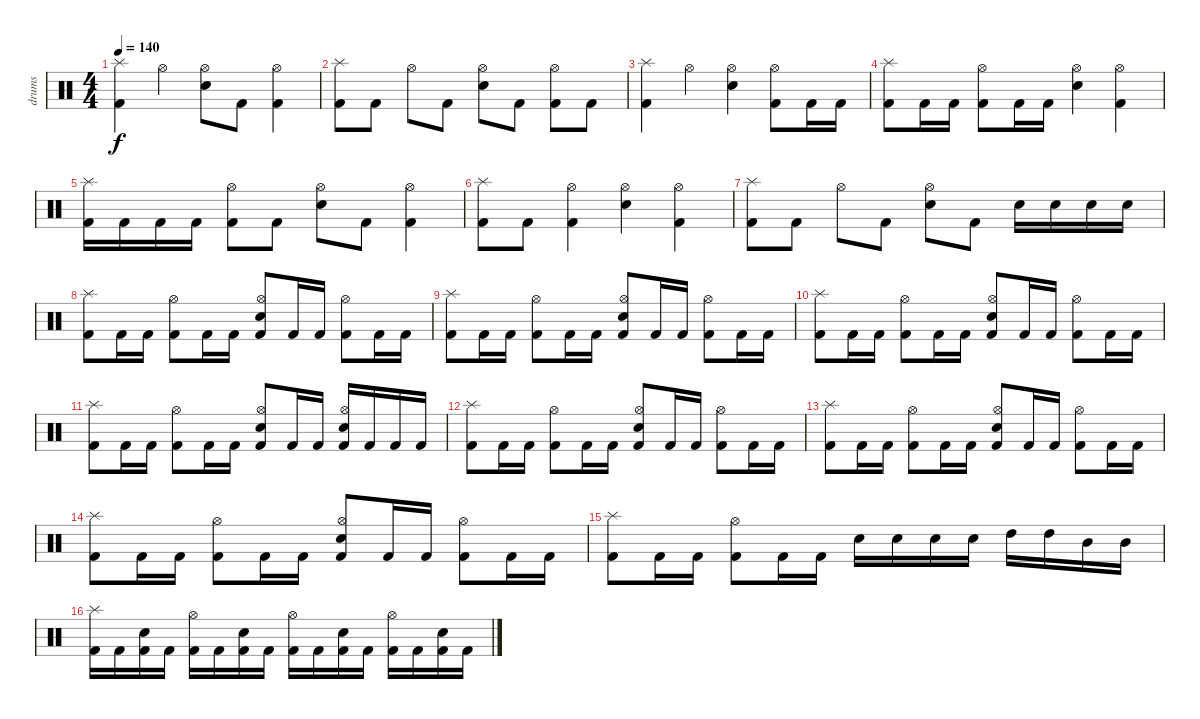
\track ("drums" "drums") {instrument percussion}
\staff {score}
\articulation defaults
\ts (4 4)
\tempo 140
\clef neutral
\ks c
("Splash (hit)" "Kick (hit) 2").4{dy f} "Hi-Hat (open)".4 ("Hi-Hat (open)" "Electric Snare (hit)").8 "Kick (hit) 2".8 ("Hi-Hat (open)" "Kick (hit) 2").4 |
("Splash (hit)" "Kick (hit) 2").8 "Kick (hit) 2".8 "Hi-Hat (open)".8 "Kick (hit) 2".8 ("Hi-Hat (open)" "Electric Snare (hit)").8 "Kick (hit) 2".8 ("Hi-Hat (open)" "Kick (hit) 2").8 "Kick (hit) 2".8 |
("Splash (hit)" "Kick (hit) 2").4 "Hi-Hat (open)".4 ("Hi-Hat (open)" "Electric Snare (hit)").4 ("Hi-Hat (open)" "Kick (hit) 2").8 "Kick (hit) 2".16 "Kick (hit) 2".16 |
("Splash (hit)" "Kick (hit) 2").8 "Kick (hit) 2".16 "Kick (hit) 2".16 ("Hi-Hat (open)" "Kick (hit) 2").8 "Kick (hit) 2".16 "Kick (hit) 2".16 ("Hi-Hat (open)" "Electric Snare (hit)").4 ("Hi-Hat (open)" "Kick (hit) 2").4 |
("Splash (hit)" "Kick (hit) 2").16 "Kick (hit) 2".16 "Kick (hit) 2".16 "Kick (hit) 2".16 ("Hi-Hat (open)" "Kick (hit) 2").8 "Kick (hit) 2".8 ("Hi-Hat (open)" "Electric Snare (hit)").8 "Kick (hit) 2".8 ("Hi-Hat (open)" "Kick (hit) 2").4 |
("Splash (hit)" "Kick (hit) 2").8 "Kick (hit) 2".8 ("Hi-Hat (open)" "Kick (hit) 2").4 ("Hi-Hat (open)" "Electric Snare (hit)").4 ("Hi-Hat (open)" "Kick (hit) 2").4 |
("Splash (hit)" "Kick (hit) 2").8 "Kick (hit) 2".8 "Hi-Hat (open)".8 "Kick (hit) 2".8 ("Hi-Hat (open)" "Electric Snare (hit)").8 "Kick (hit) 2".8 "Electric Snare (hit)".16 "Electric Snare (hit)".16 "Electric Snare (hit)".16 "Electric Snare (hit)".16 |
("Splash (hit)" "Kick (hit) 2").8 "Kick (hit) 2".16 "Kick (hit) 2".16 ("Hi-Hat (open)" "Kick (hit) 2").8 "Kick (hit) 2".16 "Kick (hit) 2".16 ("Hi-Hat (open)" "Electric Snare (hit)" "Kick (hit) 2").8 "Kick (hit) 2".16 "Kick (hit) 2".16 ("Hi-Hat (open)" "Kick (hit) 2").8 "Kick (hit) 2".16 "Kick (hit) 2".16 |
("Splash (hit)" "Kick (hit) 2").8 "Kick (hit) 2".16 "Kick (hit) 2".16 ("Hi-Hat (open)" "Kick (hit) 2").8 "Kick (hit) 2".16 "Kick (hit) 2".16 ("Hi-Hat (open)" "Electric Snare (hit)" "Kick (hit) 2").8 "Kick (hit) 2".16 "Kick (hit) 2".16 ("Hi-Hat (open)" "Kick (hit) 2").8 "Kick (hit) 2".16 "Kick (hit) 2".16 |
("Splash (hit)" "Kick (hit) 2").8 "Kick (hit) 2".16 "Kick (hit) 2".16 ("Hi-Hat (open)" "Kick (hit) 2").8 "Kick (hit) 2".16 "Kick (hit) 2".16 ("Hi-Hat (open)" "Electric Snare (hit)" "Kick (hit) 2").8 "Kick (hit) 2".16 "Kick (hit) 2".16 ("Hi-Hat (open)" "Kick (hit) 2").8 "Kick (hit) 2".16 "Kick (hit) 2".16 |
("Splash (hit)" "Kick (hit) 2").8 "Kick (hit) 2".16 "Kick (hit) 2".16 ("Hi-Hat (open)" "Kick (hit) 2").8 "Kick (hit) 2".16 "Kick (hit) 2".16 ("Hi-Hat (open)" "Electric Snare (hit)" "Kick (hit) 2").8 "Kick (hit) 2".16 "Kick (hit) 2".16 ("Hi-Hat (open)" "Electric Snare (hit)" "Kick (hit) 2").16 "Kick (hit) 2".16 "Kick (hit) 2".16 "Kick (hit) 2".16 |
("Splash (hit)" "Kick (hit) 2").8 "Kick (hit) 2".16 "Kick (hit) 2".16 ("Hi-Hat (open)" "Kick (hit) 2").8 "Kick (hit) 2".16 "Kick (hit) 2".16 ("Hi-Hat (open)" "Electric Snare (hit)" "Kick (hit) 2").8 "Kick (hit) 2".16 "Kick (hit) 2".16 ("Hi-Hat (open)" "Kick (hit) 2").8 "Kick (hit) 2".16 "Kick (hit) 2".16 |
("Splash (hit)" "Kick (hit) 2").8 "Kick (hit) 2".16 "Kick (hit) 2".16 ("Hi-Hat (open)" "Kick (hit) 2").8 "Kick (hit) 2".16 "Kick (hit) 2".16 ("Hi-Hat (open)" "Electric Snare (hit)" "Kick (hit) 2").8 "Kick (hit) 2".16 "Kick (hit) 2".16 ("Hi-Hat (open)" "Kick (hit) 2").8 "Kick (hit) 2".16 "Kick (hit) 2".16 |
("Splash (hit)" "Kick (hit) 2").8 "Kick (hit) 2".16 "Kick (hit) 2".16 ("Hi-Hat (open)" "Kick (hit) 2").8 "Kick (hit) 2".16 "Kick (hit) 2".16 ("Hi-Hat (open)" "Electric Snare (hit)" "Kick (hit) 2").8 "Kick (hit) 2".16 "Kick (hit) 2".16 ("Hi-Hat (open)" "Kick (hit) 2").8 "Kick (hit) 2".16 "Kick (hit) 2".16 |
("Splash (hit)" "Kick (hit) 2").8 "Kick (hit) 2".16 "Kick (hit) 2".16 ("Hi-Hat (open)" "Kick (hit) 2").8 "Kick (hit) 2".16 "Kick (hit) 2".16 "Electric Snare (hit)".16 "Electric Snare (hit)".16 "Electric Snare (hit)".16 "Electric Snare (hit)".16 "High Tom (hit)".16 "High Tom (hit)".16 "Mid Tom (hit)".16 "Mid Tom (hit)".16 |
("Splash (hit)" "Kick (hit) 2").16 "Kick (hit) 2".16 ("Electric Snare (hit)" "Kick (hit) 2").16 "Kick (hit) 2".16 ("Hi-Hat (open)" "Kick (hit) 2").16 "Kick (hit) 2".16 ("Electric Snare (hit)" "Kick (hit) 2").16 "Kick (hit) 2".16 ("Hi-Hat (open)" "Kick (hit) 2").16 "Kick (hit) 2".16 ("Electric Snare (hit)" "Kick (hit) 2").16 "Kick (hit) 2".16 ("Hi-Hat (open)" "Kick (hit) 2").16 "Kick (hit) 2".16 ("Electric Snare (hit)" "Kick (hit) 2").16 "Kick (hit) 2".16
